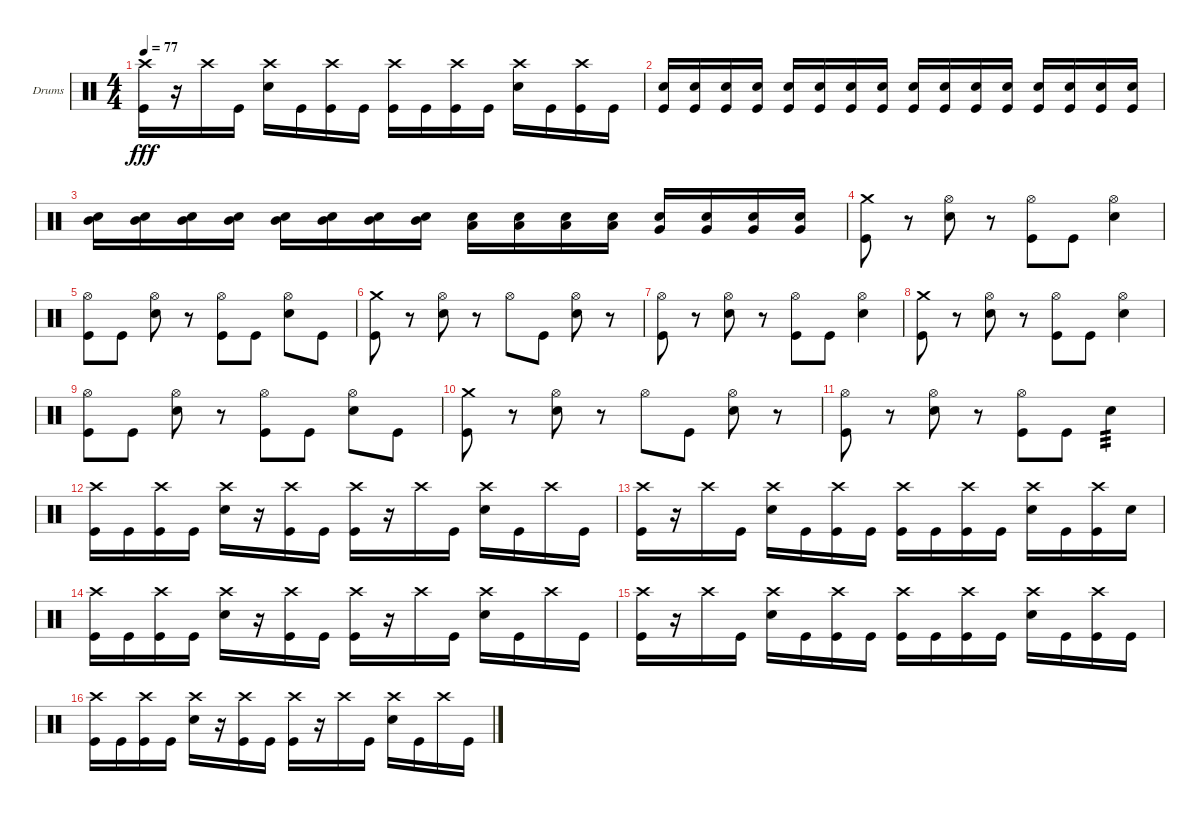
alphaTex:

\bracketExtendMode groupsimilarinstruments
\firstSystemTrackNameOrientation horizontal
\otherSystemsTrackNameOrientation horizontal
\track ("Drumkit" "Drums") {instrument percussion}
\staff {score}
\articulation defaults
\ts (4 4)
\tempo 77
\clef neutral
\ks c
("Crash high (hit)" "Kick (hit)").16{dy fff} r.16 "Crash high (hit)".16 "Kick (hit)".16 ("Crash high (hit)" "Snare (hit) 2").16 "Kick (hit)".16 ("Crash high (hit)" "Kick (hit)").16 "Kick (hit)".16 ("Crash high (hit)" "Kick (hit)").16 "Kick (hit)".16 ("Crash high (hit)" "Kick (hit)").16 "Kick (hit)".16 ("Crash high (hit)" "Snare (hit) 2").16 "Kick (hit)".16 ("Crash high (hit)" "Kick (hit)").16 "Kick (hit)".16 |
("Kick (hit)" "Snare (hit) 2").16 ("Kick (hit)" "Snare (hit) 2").16 ("Kick (hit)" "Snare (hit) 2").16 ("Kick (hit)" "Snare (hit) 2").16 ("Kick (hit)" "Snare (hit) 2").16 ("Kick (hit)" "Snare (hit) 2").16 ("Kick (hit)" "Snare (hit) 2").16 ("Kick (hit)" "Snare (hit) 2").16 ("Kick (hit)" "Snare (hit) 2").16 ("Kick (hit)" "Snare (hit) 2").16 ("Kick (hit)" "Snare (hit) 2").16 ("Kick (hit)" "Snare (hit) 2").16 ("Kick (hit)" "Snare (hit) 2").16 ("Kick (hit)" "Snare (hit) 2").16 ("Kick (hit)" "Snare (hit) 2").16 ("Kick (hit)" "Snare (hit) 2").16 |
("Snare (hit) 2" "Mid Tom (hit)").16 ("Snare (hit) 2" "Mid Tom (hit)").16 ("Snare (hit) 2" "Mid Tom (hit)").16 ("Snare (hit) 2" "Mid Tom (hit)").16 ("Snare (hit) 2" "Mid Tom (hit)").16 ("Snare (hit) 2" "Mid Tom (hit)").16 ("Snare (hit) 2" "Mid Tom (hit)").16 ("Snare (hit) 2" "Mid Tom (hit)").16 ("Low Tom (hit)" "Snare (hit) 2").16 ("Low Tom (hit)" "Snare (hit) 2").16 ("Low Tom (hit)" "Snare (hit) 2").16 ("Low Tom (hit)" "Snare (hit) 2").16 ("Very Low Tom (hit)" "Snare (hit) 2").16 ("Very Low Tom (hit)" "Snare (hit) 2").16 ("Very Low Tom (hit)" "Snare (hit) 2").16 ("Very Low Tom (hit)" "Snare (hit) 2").16 |
("Crash medium (hit)" "Kick (hit)").8 r.8 ("Hi-Hat (open)" "Snare (hit) 2").8 r.8 ("Hi-Hat (open)" "Kick (hit)").8 "Kick (hit)".8 ("Hi-Hat (open)" "Snare (hit) 2").4 |
("Hi-Hat (open)" "Kick (hit)").8 "Kick (hit)".8 ("Hi-Hat (open)" "Snare (hit) 2").8 r.8 ("Hi-Hat (open)" "Kick (hit)").8 "Kick (hit)".8 ("Hi-Hat (open)" "Snare (hit) 2").8 "Kick (hit)".8 |
("Crash medium (hit)" "Kick (hit)").8 r.8 ("Hi-Hat (open)" "Snare (hit) 2").8 r.8 "Hi-Hat (open)".8 "Kick (hit)".8 ("Hi-Hat (open)" "Snare (hit) 2").8 r.8 |
("Hi-Hat (open)" "Kick (hit)").8 r.8 ("Hi-Hat (open)" "Snare (hit) 2").8 r.8 ("Hi-Hat (open)" "Kick (hit)").8 "Kick (hit)".8 ("Hi-Hat (open)" "Snare (hit) 2").4 |
("Crash medium (hit)" "Kick (hit)").8 r.8 ("Hi-Hat (open)" "Snare (hit) 2").8 r.8 ("Hi-Hat (open)" "Kick (hit)").8 "Kick (hit)".8 ("Hi-Hat (open)" "Snare (hit) 2").4 |
("Hi-Hat (open)" "Kick (hit)").8 "Kick (hit)".8 ("Hi-Hat (open)" "Snare (hit) 2").8 r.8 ("Hi-Hat (open)" "Kick (hit)").8 "Kick (hit)".8 ("Hi-Hat (open)" "Snare (hit) 2").8 "Kick (hit)".8 |
("Crash medium (hit)" "Kick (hit)").8 r.8 ("Hi-Hat (open)" "Snare (hit) 2").8 r.8 "Hi-Hat (open)".8 "Kick (hit)".8 ("Hi-Hat (open)" "Snare (hit) 2").8 r.8 |
("Hi-Hat (open)" "Kick (hit)").8 r.8 ("Hi-Hat (open)" "Snare (hit) 2").8 r.8 ("Hi-Hat (open)" "Kick (hit)").8 "Kick (hit)".8 "Snare (hit) 2".4{tp 3} |
("Crash high (hit)" "Kick (hit)").16 "Kick (hit)".16 ("Crash high (hit)" "Kick (hit)").16 "Kick (hit)".16 ("Crash high (hit)" "Snare (hit) 2").16 r.16 ("Crash high (hit)" "Kick (hit)").16 "Kick (hit)".16 ("Crash high (hit)" "Kick (hit)").16 r.16 "Crash high (hit)".16 "Kick (hit)".16 ("Crash high (hit)" "Snare (hit) 2").16 "Kick (hit)".16 "Crash high (hit)".16 "Kick (hit)".16 |
("Crash high (hit)" "Kick (hit)").16 r.16 "Crash high (hit)".16 "Kick (hit)".16 ("Crash high (hit)" "Snare (hit) 2").16 "Kick (hit)".16 ("Crash high (hit)" "Kick (hit)").16 "Kick (hit)".16 ("Crash high (hit)" "Kick (hit)").16 "Kick (hit)".16 ("Crash high (hit)" "Kick (hit)").16 "Kick (hit)".16 ("Crash high (hit)" "Snare (hit) 2").16 "Kick (hit)".16 ("Crash high (hit)" "Kick (hit)").16 "Snare (hit) 2".16 |
("Crash high (hit)" "Kick (hit)").16 "Kick (hit)".16 ("Crash high (hit)" "Kick (hit)").16 "Kick (hit)".16 ("Crash high (hit)" "Snare (hit) 2").16 r.16 ("Crash high (hit)" "Kick (hit)").16 "Kick (hit)".16 ("Crash high (hit)" "Kick (hit)").16 r.16 "Crash high (hit)".16 "Kick (hit)".16 ("Crash high (hit)" "Snare (hit) 2").16 "Kick (hit)".16 "Crash high (hit)".16 "Kick (hit)".16 |
("Crash high (hit)" "Kick (hit)").16 r.16 "Crash high (hit)".16 "Kick (hit)".16 ("Crash high (hit)" "Snare (hit) 2").16 "Kick (hit)".16 ("Crash high (hit)" "Kick (hit)").16 "Kick (hit)".16 ("Crash high (hit)" "Kick (hit)").16 "Kick (hit)".16 ("Crash high (hit)" "Kick (hit)").16 "Kick (hit)".16 ("Crash high (hit)" "Snare (hit) 2").16 "Kick (hit)".16 ("Crash high (hit)" "Kick (hit)").16 "Kick (hit)".16 |
("Crash high (hit)" "Kick (hit)").16 "Kick (hit)".16 ("Crash high (hit)" "Kick (hit)").16 "Kick (hit)".16 ("Crash high (hit)" "Snare (hit) 2").16 r.16 ("Crash high (hit)" "Kick (hit)").16 "Kick (hit)".16 ("Crash high (hit)" "Kick (hit)").16 r.16 "Crash high (hit)".16 "Kick (hit)".16 ("Crash high (hit)" "Snare (hit) 2").16 "Kick (hit)".16 "Crash high (hit)".16 "Kick (hit)".16
